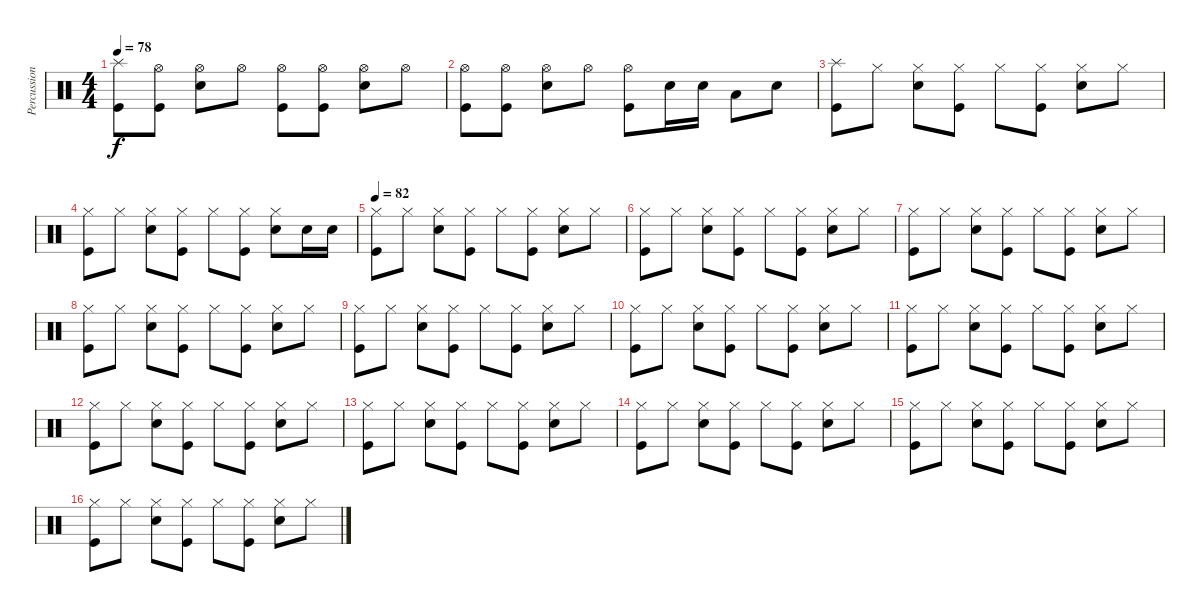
\track ("Percussion" "Percussion") {instrument percussion}
\staff {score}
\articulation defaults
\ts (4 4)
\tempo 78
\clef neutral
\ks c
("Splash (hit)" "Kick (hit)").8{dy f} ("Hi-Hat (open)" "Kick (hit)").8 ("Hi-Hat (open)" "Snare (hit) 2").8 "Hi-Hat (open)".8 ("Hi-Hat (open)" "Kick (hit)").8 ("Hi-Hat (open)" "Kick (hit)").8 ("Hi-Hat (open)" "Snare (hit) 2").8 "Hi-Hat (open)".8 |
("Hi-Hat (open)" "Kick (hit)").8 ("Hi-Hat (open)" "Kick (hit)").8 ("Hi-Hat (open)" "Snare (hit) 2").8 "Hi-Hat (open)".8 ("Hi-Hat (open)" "Kick (hit)").8 "Snare (hit) 2".16 "Snare (hit) 2".16 "Low Tom (hit)".8 "Snare (hit) 2".8 |
("Splash (hit)" "Kick (hit)").8 "Hi-Hat (closed)".8 ("Hi-Hat (closed)" "Snare (hit) 2").8 ("Hi-Hat (closed)" "Kick (hit)").8 "Hi-Hat (closed)".8 ("Hi-Hat (closed)" "Kick (hit)").8 ("Hi-Hat (closed)" "Snare (hit) 2").8 "Hi-Hat (closed)".8 |
("Hi-Hat (closed)" "Kick (hit)").8 "Hi-Hat (closed)".8 ("Hi-Hat (closed)" "Snare (hit) 2").8 ("Hi-Hat (closed)" "Kick (hit)").8 "Hi-Hat (closed)".8 ("Hi-Hat (closed)" "Kick (hit)").8 ("Hi-Hat (closed)" "Snare (hit) 2").8 "Snare (hit) 2".16 "Snare (hit) 2".16 |
\tempo 82
("Hi-Hat (closed)" "Kick (hit)").8 "Hi-Hat (closed)".8 ("Hi-Hat (closed)" "Snare (hit) 2").8 ("Hi-Hat (closed)" "Kick (hit)").8 "Hi-Hat (closed)".8 ("Hi-Hat (closed)" "Kick (hit)").8 ("Hi-Hat (closed)" "Snare (hit) 2").8 "Hi-Hat (closed)".8 |
("Hi-Hat (closed)" "Kick (hit)").8 "Hi-Hat (closed)".8 ("Hi-Hat (closed)" "Snare (hit) 2").8 ("Hi-Hat (closed)" "Kick (hit)").8 "Hi-Hat (closed)".8 ("Hi-Hat (closed)" "Kick (hit)").8 ("Hi-Hat (closed)" "Snare (hit) 2").8 "Hi-Hat (closed)".8 |
("Hi-Hat (closed)" "Kick (hit)").8 "Hi-Hat (closed)".8 ("Hi-Hat (closed)" "Snare (hit) 2").8 ("Hi-Hat (closed)" "Kick (hit)").8 "Hi-Hat (closed)".8 ("Hi-Hat (closed)" "Kick (hit)").8 ("Hi-Hat (closed)" "Snare (hit) 2").8 "Hi-Hat (closed)".8 |
("Hi-Hat (closed)" "Kick (hit)").8 "Hi-Hat (closed)".8 ("Hi-Hat (closed)" "Snare (hit) 2").8 ("Hi-Hat (closed)" "Kick (hit)").8 "Hi-Hat (closed)".8 ("Hi-Hat (closed)" "Kick (hit)").8 ("Hi-Hat (closed)" "Snare (hit) 2").8 "Hi-Hat (closed)".8 |
("Hi-Hat (closed)" "Kick (hit)").8 "Hi-Hat (closed)".8 ("Hi-Hat (closed)" "Snare (hit) 2").8 ("Hi-Hat (closed)" "Kick (hit)").8 "Hi-Hat (closed)".8 ("Hi-Hat (closed)" "Kick (hit)").8 ("Hi-Hat (closed)" "Snare (hit) 2").8 "Hi-Hat (closed)".8 |
("Hi-Hat (closed)" "Kick (hit)").8 "Hi-Hat (closed)".8 ("Hi-Hat (closed)" "Snare (hit) 2").8 ("Hi-Hat (closed)" "Kick (hit)").8 "Hi-Hat (closed)".8 ("Hi-Hat (closed)" "Kick (hit)").8 ("Hi-Hat (closed)" "Snare (hit) 2").8 "Hi-Hat (closed)".8 |
("Hi-Hat (closed)" "Kick (hit)").8 "Hi-Hat (closed)".8 ("Hi-Hat (closed)" "Snare (hit) 2").8 ("Hi-Hat (closed)" "Kick (hit)").8 "Hi-Hat (closed)".8 ("Hi-Hat (closed)" "Kick (hit)").8 ("Hi-Hat (closed)" "Snare (hit) 2").8 "Hi-Hat (closed)".8 |
("Hi-Hat (closed)" "Kick (hit)").8 "Hi-Hat (closed)".8 ("Hi-Hat (closed)" "Snare (hit) 2").8 ("Hi-Hat (closed)" "Kick (hit)").8 "Hi-Hat (closed)".8 ("Hi-Hat (closed)" "Kick (hit)").8 ("Hi-Hat (closed)" "Snare (hit) 2").8 "Hi-Hat (closed)".8 |
("Hi-Hat (closed)" "Kick (hit)").8 "Hi-Hat (closed)".8 ("Hi-Hat (closed)" "Snare (hit) 2").8 ("Hi-Hat (closed)" "Kick (hit)").8 "Hi-Hat (closed)".8 ("Hi-Hat (closed)" "Kick (hit)").8 ("Hi-Hat (closed)" "Snare (hit) 2").8 "Hi-Hat (closed)".8 |
("Hi-Hat (closed)" "Kick (hit)").8 "Hi-Hat (closed)".8 ("Hi-Hat (closed)" "Snare (hit) 2").8 ("Hi-Hat (closed)" "Kick (hit)").8 "Hi-Hat (closed)".8 ("Hi-Hat (closed)" "Kick (hit)").8 ("Hi-Hat (closed)" "Snare (hit) 2").8 "Hi-Hat (closed)".8 |
("Hi-Hat (closed)" "Kick (hit)").8 "Hi-Hat (closed)".8 ("Hi-Hat (closed)" "Snare (hit) 2").8 ("Hi-Hat (closed)" "Kick (hit)").8 "Hi-Hat (closed)".8 ("Hi-Hat (closed)" "Kick (hit)").8 ("Hi-Hat (closed)" "Snare (hit) 2").8 "Hi-Hat (closed)".8 |
("Hi-Hat (closed)" "Kick (hit)").8 "Hi-Hat (closed)".8 ("Hi-Hat (closed)" "Snare (hit) 2").8 ("Hi-Hat (closed)" "Kick (hit)").8 "Hi-Hat (closed)".8 ("Hi-Hat (closed)" "Kick (hit)").8 ("Hi-Hat (closed)" "Snare (hit) 2").8 "Hi-Hat (closed)".8
